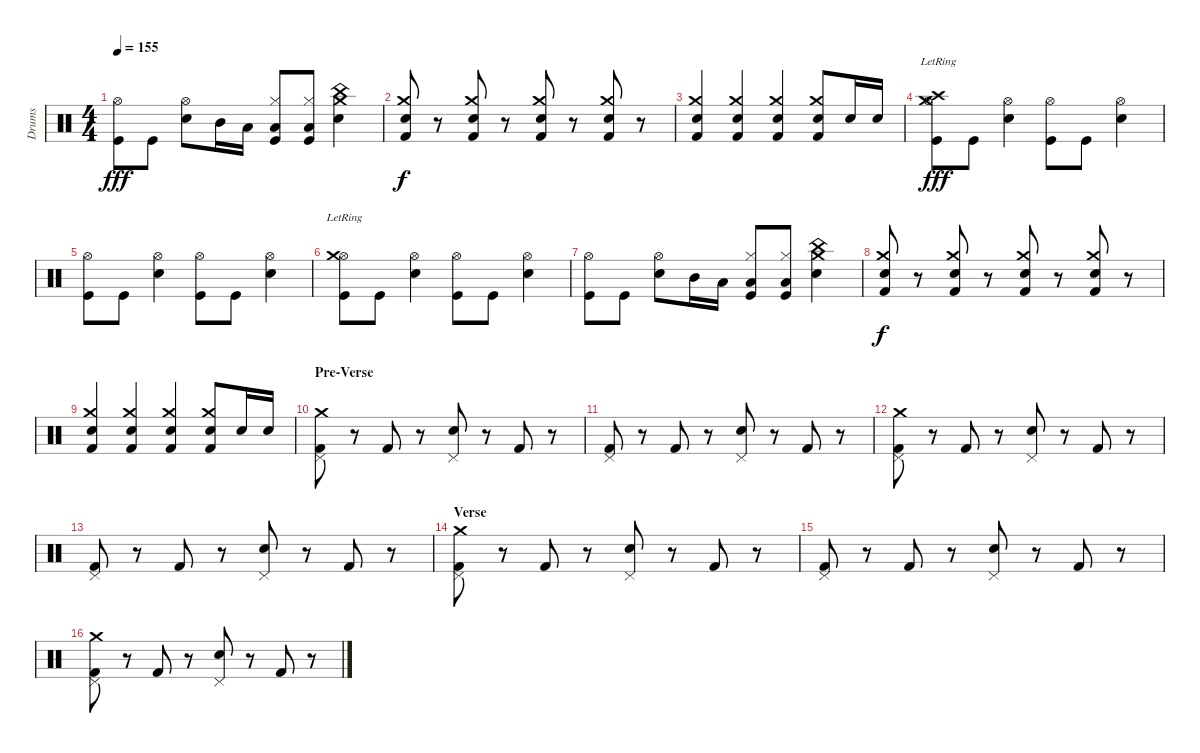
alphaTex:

\track ("Drums" "Drums") {instrument percussion}
\staff {score}
\articulation defaults
\ts (4 4)
\tempo 155
\clef neutral
\ks c
("Hi-Hat (open)" "Kick (hit)").8{dy fff} "Kick (hit)".8 ("Hi-Hat (open)" "Snare (hit) 2").8 "Mid Tom (hit)".16 "Low Tom (hit)".16 ("Hi-Hat (closed)" "Low Floor Tom (hit)" "Kick (hit)").8 ("Hi-Hat (closed)" "Low Floor Tom (hit)" "Kick (hit)").8 ("Crash medium (hit)" "China (hit)" "Snare (hit) 2").4 |
("Kick (hit) 2" "Crash medium (hit)" "Snare (hit) 2").8{dy f} r.8 ("Kick (hit) 2" "Crash medium (hit)" "Snare (hit) 2").8 r.8 ("Kick (hit) 2" "Crash medium (hit)" "Snare (hit) 2").8 r.8 ("Kick (hit) 2" "Crash medium (hit)" "Snare (hit) 2").8 r.8 |
("Crash medium (hit)" "Snare (hit) 2" "Kick (hit) 2").4 ("Crash medium (hit)" "Snare (hit) 2" "Kick (hit) 2").4 ("Crash medium (hit)" "Snare (hit) 2" "Kick (hit) 2").4 ("Crash medium (hit)" "Snare (hit) 2" "Kick (hit) 2").8 "Snare (hit) 2".16 "Snare (hit) 2".16 |
("Crash high (hit)"{lr} "Hi-Hat (open)" "Crash medium (hit)"{lr} "Kick (hit)").8{dy fff} "Kick (hit)".8 ("Hi-Hat (open)" "Snare (hit) 2").4 ("Hi-Hat (open)" "Kick (hit)").8 "Kick (hit)".8 ("Hi-Hat (open)" "Snare (hit) 2").4 |
("Hi-Hat (open)" "Kick (hit)").8 "Kick (hit)".8 ("Hi-Hat (open)" "Snare (hit) 2").4 ("Hi-Hat (open)" "Kick (hit)").8 "Kick (hit)".8 ("Hi-Hat (open)" "Snare (hit) 2").4 |
("Hi-Hat (open)" "Crash medium (hit)"{lr} "Kick (hit)").8 "Kick (hit)".8 ("Hi-Hat (open)" "Snare (hit) 2").4 ("Hi-Hat (open)" "Kick (hit)").8 "Kick (hit)".8 ("Hi-Hat (open)" "Snare (hit) 2").4 |
("Hi-Hat (open)" "Kick (hit)").8 "Kick (hit)".8 ("Hi-Hat (open)" "Snare (hit) 2").8 "Mid Tom (hit)".16 "Low Tom (hit)".16 ("Hi-Hat (closed)" "Low Floor Tom (hit)" "Kick (hit)").8 ("Hi-Hat (closed)" "Low Floor Tom (hit)" "Kick (hit)").8 ("Crash medium (hit)" "China (hit)" "Snare (hit) 2").4 |
("Kick (hit) 2" "Crash medium (hit)" "Snare (hit) 2").8{dy f} r.8 ("Kick (hit) 2" "Crash medium (hit)" "Snare (hit) 2").8 r.8 ("Kick (hit) 2" "Crash medium (hit)" "Snare (hit) 2").8 r.8 ("Kick (hit) 2" "Crash medium (hit)" "Snare (hit) 2").8 r.8 |
("Crash medium (hit)" "Snare (hit) 2" "Kick (hit) 2").4 ("Crash medium (hit)" "Snare (hit) 2" "Kick (hit) 2").4 ("Crash medium (hit)" "Snare (hit) 2" "Kick (hit) 2").4 ("Crash medium (hit)" "Snare (hit) 2" "Kick (hit) 2").8 "Snare (hit) 2".16 "Snare (hit) 2".16 |
\section ("" "Pre-Verse")
("Pedal Hi-Hat (hit)" "Crash medium (hit)" "Kick (hit) 2").8 r.8 "Kick (hit) 2".8 r.8 ("Pedal Hi-Hat (hit)" "Snare (hit) 2").8 r.8 "Kick (hit) 2".8 r.8 |
("Pedal Hi-Hat (hit)" "Kick (hit) 2").8 r.8 "Kick (hit) 2".8 r.8 ("Pedal Hi-Hat (hit)" "Snare (hit) 2").8 r.8 "Kick (hit) 2".8 r.8 |
("Pedal Hi-Hat (hit)" "Crash medium (hit)" "Kick (hit) 2").8 r.8 "Kick (hit) 2".8 r.8 ("Pedal Hi-Hat (hit)" "Snare (hit) 2").8 r.8 "Kick (hit) 2".8 r.8 |
("Pedal Hi-Hat (hit)" "Kick (hit) 2").8 r.8 "Kick (hit) 2".8 r.8 ("Pedal Hi-Hat (hit)" "Snare (hit) 2").8 r.8 "Kick (hit) 2".8 r.8 |
\section ("" "Verse")
("Pedal Hi-Hat (hit)" "Crash medium (hit)" "Kick (hit) 2").8 r.8 "Kick (hit) 2".8 r.8 ("Pedal Hi-Hat (hit)" "Snare (hit) 2").8 r.8 "Kick (hit) 2".8 r.8 |
("Pedal Hi-Hat (hit)" "Kick (hit) 2").8 r.8 "Kick (hit) 2".8 r.8 ("Pedal Hi-Hat (hit)" "Snare (hit) 2").8 r.8 "Kick (hit) 2".8 r.8 |
("Pedal Hi-Hat (hit)" "Crash medium (hit)" "Kick (hit) 2").8 r.8 "Kick (hit) 2".8 r.8 ("Pedal Hi-Hat (hit)" "Snare (hit) 2").8 r.8 "Kick (hit) 2".8 r.8
